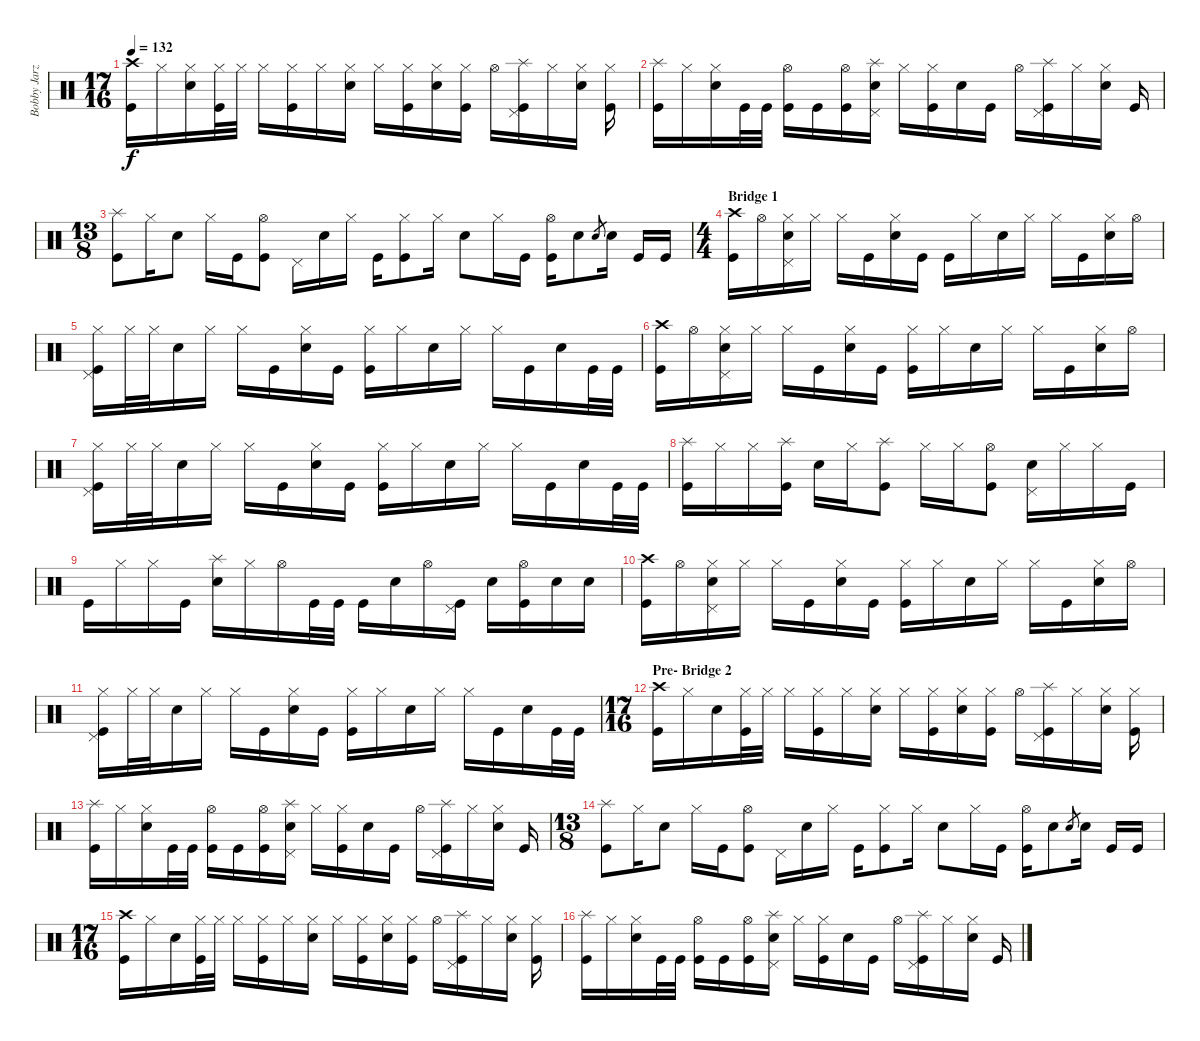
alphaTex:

\track ("Bobby Jarzombek" "Bobby Jarz") {instrument percussion}
\staff {score}
\articulation defaults
\ts (17 16)
\tempo 132
\clef neutral
\ks c
("Crash high (hit)" "Kick (hit)").16{dy f} "Hi-Hat (closed)".16 ("Hi-Hat (closed)" "Electric Snare (hit)").16 ("Hi-Hat (closed)" "Kick (hit)").32 "Hi-Hat (closed)".32 "Hi-Hat (closed)".16 ("Hi-Hat (closed)" "Kick (hit)").16 "Hi-Hat (closed)".16 ("Hi-Hat (closed)" "Electric Snare (hit)").16 "Hi-Hat (closed)".16 ("Hi-Hat (closed)" "Kick (hit)").16 ("Hi-Hat (closed)" "Electric Snare (hit)").16 ("Hi-Hat (closed)" "Kick (hit)").16 "Hi-Hat (open)".16 ("Splash (hit)" "Pedal Hi-Hat (hit)" "Kick (hit)").16 "Hi-Hat (closed)".16 ("Hi-Hat (closed)" "Electric Snare (hit)").16 ("Hi-Hat (closed)" "Kick (hit)").16 |
("Splash (hit)" "Kick (hit)").16 "Hi-Hat (closed)".16 ("Hi-Hat (closed)" "Electric Snare (hit)").16 "Kick (hit)".32 "Kick (hit)".32 ("Hi-Hat (open)" "Kick (hit)").16 "Kick (hit)".16 ("Hi-Hat (open)" "Kick (hit)").16 ("Splash (hit)" "Electric Snare (hit)" "Pedal Hi-Hat (hit)").16 "Hi-Hat (closed)".16 ("Hi-Hat (closed)" "Kick (hit)").16 "Electric Snare (hit)".16 "Kick (hit)".16 "Hi-Hat (open)".16 ("Splash (hit)" "Pedal Hi-Hat (hit)" "Kick (hit)").16 "Hi-Hat (closed)".16 ("Hi-Hat (closed)" "Electric Snare (hit)").16 "Kick (hit)".16 |
\ts (13 8)
("Splash (hit)" "Kick (hit)").8 "Hi-Hat (closed)".16 "Electric Snare (hit)".8 "Hi-Hat (closed)".16 "Kick (hit)".16 ("Hi-Hat (open)" "Kick (hit)").8 "Pedal Hi-Hat (hit)".16 "Electric Snare (hit)".16 "Hi-Hat (closed)".16 "Kick (hit)".16 ("Hi-Hat (closed)" "Kick (hit)").8 "Hi-Hat (closed)".16 "Electric Snare (hit)".8 "Hi-Hat (closed)".16 "Kick (hit)".16 ("Hi-Hat (open)" "Kick (hit)").16 "Electric Snare (hit)".8 "Electric Snare (hit)".8{gr} "Electric Snare (hit)".16 "Kick (hit)".16 "Kick (hit)".16 |
\ts (4 4)
\section ("" "Bridge 1")
("Crash high (hit)" "Kick (hit)").16 "Hi-Hat (open)".16 ("Hi-Hat (closed)" "Electric Snare (hit)" "Pedal Hi-Hat (hit)").16 "Hi-Hat (closed)".16 "Hi-Hat (closed)".16 "Kick (hit)".16 ("Hi-Hat (closed)" "Electric Snare (hit)").16 "Kick (hit)".16 "Kick (hit)".16 "Hi-Hat (closed)".16 "Electric Snare (hit)".16 "Hi-Hat (closed)".16 "Hi-Hat (closed)".16 "Kick (hit)".16 ("Hi-Hat (closed)" "Electric Snare (hit)").16 "Hi-Hat (open)".16 |
("Hi-Hat (closed)" "Kick (hit)" "Pedal Hi-Hat (hit)").16 "Hi-Hat (closed)".32 "Hi-Hat (closed)".32 "Electric Snare (hit)".16 "Hi-Hat (closed)".16 "Hi-Hat (closed)".16 "Kick (hit)".16 ("Hi-Hat (closed)" "Electric Snare (hit)").16 "Kick (hit)".16 ("Hi-Hat (closed)" "Kick (hit)").16 "Hi-Hat (closed)".16 "Electric Snare (hit)".16 "Hi-Hat (closed)".16 "Hi-Hat (closed)".16 "Kick (hit)".16 "Electric Snare (hit)".16 "Kick (hit)".32 "Kick (hit)".32 |
("Crash high (hit)" "Kick (hit)").16 "Hi-Hat (open)".16 ("Hi-Hat (closed)" "Electric Snare (hit)" "Pedal Hi-Hat (hit)").16 "Hi-Hat (closed)".16 "Hi-Hat (closed)".16 "Kick (hit)".16 ("Hi-Hat (closed)" "Electric Snare (hit)").16 "Kick (hit)".16 ("Hi-Hat (closed)" "Kick (hit)").16 "Hi-Hat (closed)".16 "Electric Snare (hit)".16 "Hi-Hat (closed)".16 "Hi-Hat (closed)".16 "Kick (hit)".16 ("Hi-Hat (closed)" "Electric Snare (hit)").16 "Hi-Hat (open)".16 |
("Hi-Hat (closed)" "Kick (hit)" "Pedal Hi-Hat (hit)").16 "Hi-Hat (closed)".32 "Hi-Hat (closed)".32 "Electric Snare (hit)".16 "Hi-Hat (closed)".16 "Hi-Hat (closed)".16 "Kick (hit)".16 ("Hi-Hat (closed)" "Electric Snare (hit)").16 "Kick (hit)".16 ("Hi-Hat (closed)" "Kick (hit)").16 "Hi-Hat (closed)".16 "Electric Snare (hit)".16 "Hi-Hat (closed)".16 "Hi-Hat (closed)".16 "Kick (hit)".16 "Electric Snare (hit)".16 "Kick (hit)".32 "Kick (hit)".32 |
("Splash (hit)" "Kick (hit)").16 "Hi-Hat (closed)".16 "Hi-Hat (closed)".16 ("Splash (hit)" "Kick (hit)").16 "Electric Snare (hit)".16 "Hi-Hat (closed)".16 ("Splash (hit)" "Kick (hit)").8 "Hi-Hat (closed)".16 "Hi-Hat (closed)".16 ("Hi-Hat (open)" "Kick (hit)").8 ("Electric Snare (hit)" "Pedal Hi-Hat (hit)").16 "Hi-Hat (closed)".16 "Hi-Hat (closed)".16 "Kick (hit)".16 |
"Kick (hit)".16 "Hi-Hat (closed)".16 "Hi-Hat (closed)".16 "Kick (hit)".16 ("Splash (hit)" "Electric Snare (hit)").16 "Hi-Hat (closed)".16 "Hi-Hat (open)".16 "Kick (hit)".32 "Kick (hit)".32 "Kick (hit)".16 "Electric Snare (hit)".16 "Hi-Hat (open)".16 ("Pedal Hi-Hat (hit)" "Kick (hit)").16 "Electric Snare (hit)".16 ("Hi-Hat (open)" "Kick (hit)").16 "Electric Snare (hit)".16 "Electric Snare (hit)".16 |
("Crash high (hit)" "Kick (hit)").16 "Hi-Hat (open)".16 ("Hi-Hat (closed)" "Electric Snare (hit)" "Pedal Hi-Hat (hit)").16 "Hi-Hat (closed)".16 "Hi-Hat (closed)".16 "Kick (hit)".16 ("Hi-Hat (closed)" "Electric Snare (hit)").16 "Kick (hit)".16 ("Hi-Hat (closed)" "Kick (hit)").16 "Hi-Hat (closed)".16 "Electric Snare (hit)".16 "Hi-Hat (closed)".16 "Hi-Hat (closed)".16 "Kick (hit)".16 ("Hi-Hat (closed)" "Electric Snare (hit)").16 "Hi-Hat (open)".16 |
("Hi-Hat (closed)" "Kick (hit)" "Pedal Hi-Hat (hit)").16 "Hi-Hat (closed)".32 "Hi-Hat (closed)".32 "Electric Snare (hit)".16 "Hi-Hat (closed)".16 "Hi-Hat (closed)".16 "Kick (hit)".16 ("Hi-Hat (closed)" "Electric Snare (hit)").16 "Kick (hit)".16 ("Hi-Hat (closed)" "Kick (hit)").16 "Hi-Hat (closed)".16 "Electric Snare (hit)".16 "Hi-Hat (closed)".16 "Hi-Hat (closed)".16 "Kick (hit)".16 "Electric Snare (hit)".16 "Kick (hit)".32 "Kick (hit)".32 |
\ts (17 16)
\section ("" "Pre- Bridge 2")
("Crash high (hit)" "Kick (hit)").16 "Hi-Hat (closed)".16 "Electric Snare (hit)".16 ("Hi-Hat (closed)" "Kick (hit)").32 "Hi-Hat (closed)".32 "Hi-Hat (closed)".16 ("Hi-Hat (closed)" "Kick (hit)").16 "Hi-Hat (closed)".16 ("Hi-Hat (closed)" "Electric Snare (hit)").16 "Hi-Hat (closed)".16 ("Hi-Hat (closed)" "Kick (hit)").16 ("Hi-Hat (closed)" "Electric Snare (hit)").16 ("Hi-Hat (closed)" "Kick (hit)").16 "Hi-Hat (open)".16 ("Splash (hit)" "Pedal Hi-Hat (hit)" "Kick (hit)").16 "Hi-Hat (closed)".16 ("Hi-Hat (closed)" "Electric Snare (hit)").16 ("Hi-Hat (closed)" "Kick (hit)").16 |
("Splash (hit)" "Kick (hit)").16 "Hi-Hat (closed)".16 ("Hi-Hat (closed)" "Electric Snare (hit)").16 "Kick (hit)".32 "Kick (hit)".32 ("Hi-Hat (open)" "Kick (hit)").16 "Kick (hit)".16 ("Hi-Hat (open)" "Kick (hit)").16 ("Splash (hit)" "Electric Snare (hit)" "Pedal Hi-Hat (hit)").16 "Hi-Hat (closed)".16 ("Hi-Hat (closed)" "Kick (hit)").16 "Electric Snare (hit)".16 "Kick (hit)".16 "Hi-Hat (open)".16 ("Splash (hit)" "Pedal Hi-Hat (hit)" "Kick (hit)").16 "Hi-Hat (closed)".16 ("Hi-Hat (closed)" "Electric Snare (hit)").16 "Kick (hit)".16 |
\ts (13 8)
("Splash (hit)" "Kick (hit)").8 "Hi-Hat (closed)".16 "Electric Snare (hit)".8 "Hi-Hat (closed)".16 "Kick (hit)".16 ("Hi-Hat (open)" "Kick (hit)").8 "Pedal Hi-Hat (hit)".16 "Electric Snare (hit)".16 "Hi-Hat (closed)".16 "Kick (hit)".16 ("Hi-Hat (closed)" "Kick (hit)").8 "Hi-Hat (closed)".16 "Electric Snare (hit)".8 "Hi-Hat (closed)".16 "Kick (hit)".16 ("Hi-Hat (open)" "Kick (hit)").16 "Electric Snare (hit)".8 "Electric Snare (hit)".8{gr} "Electric Snare (hit)".16 "Kick (hit)".16 "Kick (hit)".16 |
\ts (17 16)
("Crash high (hit)" "Kick (hit)").16 "Hi-Hat (closed)".16 "Electric Snare (hit)".16 ("Hi-Hat (closed)" "Kick (hit)").32 "Hi-Hat (closed)".32 "Hi-Hat (closed)".16 ("Hi-Hat (closed)" "Kick (hit)").16 "Hi-Hat (closed)".16 ("Hi-Hat (closed)" "Electric Snare (hit)").16 "Hi-Hat (closed)".16 ("Hi-Hat (closed)" "Kick (hit)").16 ("Hi-Hat (closed)" "Electric Snare (hit)").16 ("Hi-Hat (closed)" "Kick (hit)").16 "Hi-Hat (open)".16 ("Splash (hit)" "Pedal Hi-Hat (hit)" "Kick (hit)").16 "Hi-Hat (closed)".16 ("Hi-Hat (closed)" "Electric Snare (hit)").16 ("Hi-Hat (closed)" "Kick (hit)").16 |
("Splash (hit)" "Kick (hit)").16 "Hi-Hat (closed)".16 ("Hi-Hat (closed)" "Electric Snare (hit)").16 "Kick (hit)".32 "Kick (hit)".32 ("Hi-Hat (open)" "Kick (hit)").16 "Kick (hit)".16 ("Hi-Hat (open)" "Kick (hit)").16 ("Splash (hit)" "Electric Snare (hit)" "Pedal Hi-Hat (hit)").16 "Hi-Hat (closed)".16 ("Hi-Hat (closed)" "Kick (hit)").16 "Electric Snare (hit)".16 "Kick (hit)".16 "Hi-Hat (open)".16 ("Splash (hit)" "Pedal Hi-Hat (hit)" "Kick (hit)").16 "Hi-Hat (closed)".16 ("Hi-Hat (closed)" "Electric Snare (hit)").16 "Kick (hit)".16
